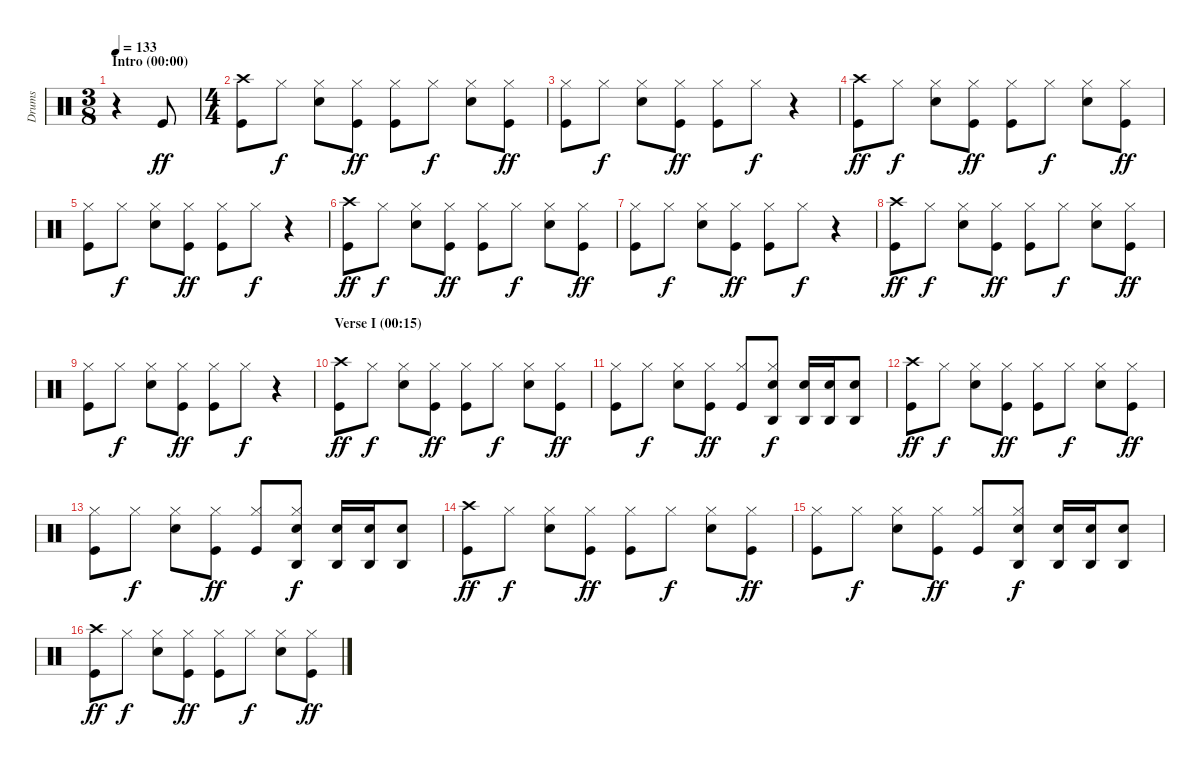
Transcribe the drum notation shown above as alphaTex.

\track ("Drums" "Drums") {instrument percussion}
\staff {score}
\articulation defaults
\ts (3 8)
\section ("" "Intro (00:00)")
\tempo 133
\clef neutral
\ks c
r.4{dy ff} "Kick (hit)".8 |
\ts (4 4)
("Crash high (hit)" "Kick (hit)").8 "Hi-Hat (closed)".8{dy f} ("Hi-Hat (closed)" "Electric Snare (hit)").8 ("Hi-Hat (closed)" "Kick (hit)").8{dy ff} ("Hi-Hat (closed)" "Kick (hit)").8 "Hi-Hat (closed)".8{dy f} ("Hi-Hat (closed)" "Electric Snare (hit)").8 ("Hi-Hat (closed)" "Kick (hit)").8{dy ff} |
("Hi-Hat (closed)" "Kick (hit)").8 "Hi-Hat (closed)".8{dy f} ("Hi-Hat (closed)" "Electric Snare (hit)").8 ("Hi-Hat (closed)" "Kick (hit)").8{dy ff} ("Hi-Hat (closed)" "Kick (hit)").8 "Hi-Hat (closed)".8{dy f} r.4 |
("Crash high (hit)" "Kick (hit)").8{dy ff} "Hi-Hat (closed)".8{dy f} ("Hi-Hat (closed)" "Electric Snare (hit)").8 ("Hi-Hat (closed)" "Kick (hit)").8{dy ff} ("Hi-Hat (closed)" "Kick (hit)").8 "Hi-Hat (closed)".8{dy f} ("Hi-Hat (closed)" "Electric Snare (hit)").8 ("Hi-Hat (closed)" "Kick (hit)").8{dy ff} |
("Hi-Hat (closed)" "Kick (hit)").8 "Hi-Hat (closed)".8{dy f} ("Hi-Hat (closed)" "Electric Snare (hit)").8 ("Hi-Hat (closed)" "Kick (hit)").8{dy ff} ("Hi-Hat (closed)" "Kick (hit)").8 "Hi-Hat (closed)".8{dy f} r.4 |
("Crash high (hit)" "Kick (hit)").8{dy ff} "Hi-Hat (closed)".8{dy f} ("Hi-Hat (closed)" "Electric Snare (hit)").8 ("Hi-Hat (closed)" "Kick (hit)").8{dy ff} ("Hi-Hat (closed)" "Kick (hit)").8 "Hi-Hat (closed)".8{dy f} ("Hi-Hat (closed)" "Electric Snare (hit)").8 ("Hi-Hat (closed)" "Kick (hit)").8{dy ff} |
("Hi-Hat (closed)" "Kick (hit)").8 "Hi-Hat (closed)".8{dy f} ("Hi-Hat (closed)" "Electric Snare (hit)").8 ("Hi-Hat (closed)" "Kick (hit)").8{dy ff} ("Hi-Hat (closed)" "Kick (hit)").8 "Hi-Hat (closed)".8{dy f} r.4 |
("Crash high (hit)" "Kick (hit)").8{dy ff} "Hi-Hat (closed)".8{dy f} ("Hi-Hat (closed)" "Electric Snare (hit)").8 ("Hi-Hat (closed)" "Kick (hit)").8{dy ff} ("Hi-Hat (closed)" "Kick (hit)").8 "Hi-Hat (closed)".8{dy f} ("Hi-Hat (closed)" "Electric Snare (hit)").8 ("Hi-Hat (closed)" "Kick (hit)").8{dy ff} |
("Hi-Hat (closed)" "Kick (hit)").8 "Hi-Hat (closed)".8{dy f} ("Hi-Hat (closed)" "Electric Snare (hit)").8 ("Hi-Hat (closed)" "Kick (hit)").8{dy ff} ("Hi-Hat (closed)" "Kick (hit)").8 "Hi-Hat (closed)".8{dy f} r.4 |
\section ("" "Verse I (00:15)")
("Crash high (hit)" "Kick (hit)").8{dy ff} "Hi-Hat (closed)".8{dy f} ("Hi-Hat (closed)" "Electric Snare (hit)").8 ("Hi-Hat (closed)" "Kick (hit)").8{dy ff} ("Hi-Hat (closed)" "Kick (hit)").8 "Hi-Hat (closed)".8{dy f} ("Hi-Hat (closed)" "Electric Snare (hit)").8 ("Hi-Hat (closed)" "Kick (hit)").8{dy ff} |
("Hi-Hat (closed)" "Kick (hit)").8 "Hi-Hat (closed)".8{dy f} ("Hi-Hat (closed)" "Electric Snare (hit)").8 ("Hi-Hat (closed)" "Kick (hit)").8{dy ff} ("Hi-Hat (closed)" "Kick (hit)").8 ("Agogo high (hit)" "Hi-Hat (closed)" "Electric Snare (hit)").8{dy f} ("Agogo high (hit)" "Electric Snare (hit)").16 ("Agogo high (hit)" "Electric Snare (hit)").16 ("Agogo high (hit)" "Electric Snare (hit)").8 |
("Crash high (hit)" "Kick (hit)").8{dy ff} "Hi-Hat (closed)".8{dy f} ("Hi-Hat (closed)" "Electric Snare (hit)").8 ("Hi-Hat (closed)" "Kick (hit)").8{dy ff} ("Hi-Hat (closed)" "Kick (hit)").8 "Hi-Hat (closed)".8{dy f} ("Hi-Hat (closed)" "Electric Snare (hit)").8 ("Hi-Hat (closed)" "Kick (hit)").8{dy ff} |
("Hi-Hat (closed)" "Kick (hit)").8 "Hi-Hat (closed)".8{dy f} ("Hi-Hat (closed)" "Electric Snare (hit)").8 ("Hi-Hat (closed)" "Kick (hit)").8{dy ff} ("Hi-Hat (closed)" "Kick (hit)").8 ("Agogo high (hit)" "Hi-Hat (closed)" "Electric Snare (hit)").8{dy f} ("Agogo high (hit)" "Electric Snare (hit)").16 ("Agogo high (hit)" "Electric Snare (hit)").16 ("Agogo high (hit)" "Electric Snare (hit)").8 |
("Crash high (hit)" "Kick (hit)").8{dy ff} "Hi-Hat (closed)".8{dy f} ("Hi-Hat (closed)" "Electric Snare (hit)").8 ("Hi-Hat (closed)" "Kick (hit)").8{dy ff} ("Hi-Hat (closed)" "Kick (hit)").8 "Hi-Hat (closed)".8{dy f} ("Hi-Hat (closed)" "Electric Snare (hit)").8 ("Hi-Hat (closed)" "Kick (hit)").8{dy ff} |
("Hi-Hat (closed)" "Kick (hit)").8 "Hi-Hat (closed)".8{dy f} ("Hi-Hat (closed)" "Electric Snare (hit)").8 ("Hi-Hat (closed)" "Kick (hit)").8{dy ff} ("Hi-Hat (closed)" "Kick (hit)").8 ("Agogo high (hit)" "Hi-Hat (closed)" "Electric Snare (hit)").8{dy f} ("Agogo high (hit)" "Electric Snare (hit)").16 ("Agogo high (hit)" "Electric Snare (hit)").16 ("Agogo high (hit)" "Electric Snare (hit)").8 |
("Crash high (hit)" "Kick (hit)").8{dy ff} "Hi-Hat (closed)".8{dy f} ("Hi-Hat (closed)" "Electric Snare (hit)").8 ("Hi-Hat (closed)" "Kick (hit)").8{dy ff} ("Hi-Hat (closed)" "Kick (hit)").8 "Hi-Hat (closed)".8{dy f} ("Hi-Hat (closed)" "Electric Snare (hit)").8 ("Hi-Hat (closed)" "Kick (hit)").8{dy ff}
